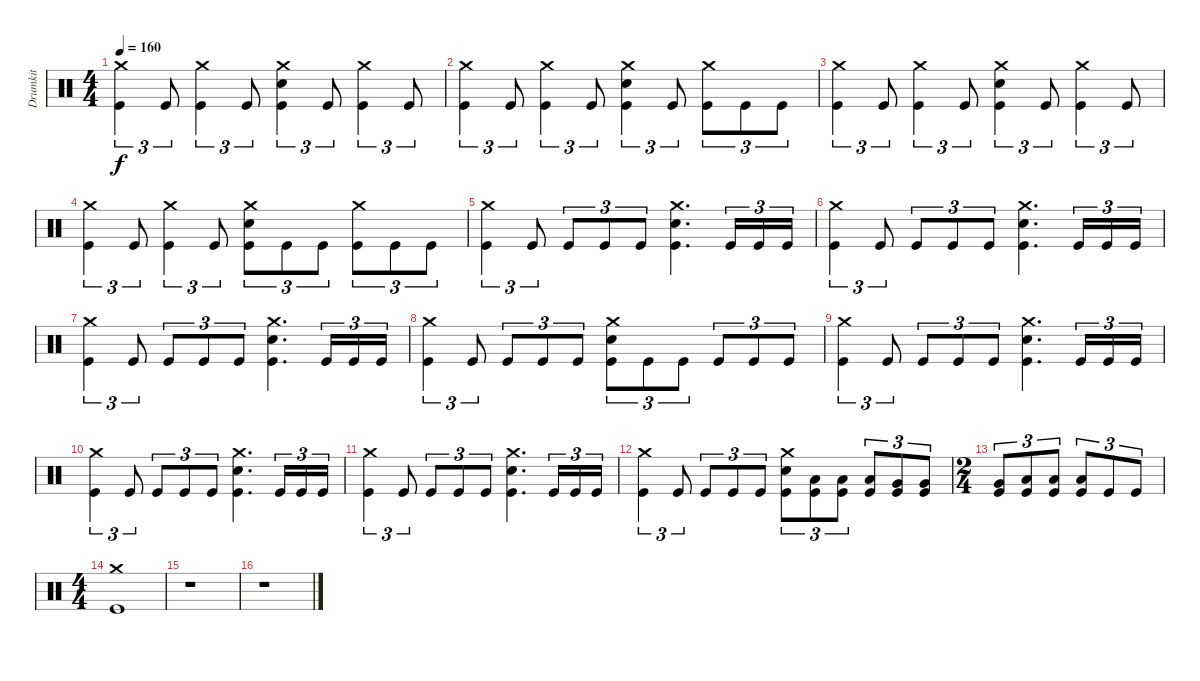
\track ("Drumkit" "Drumkit") {instrument percussion}
\staff {score}
\articulation defaults
\ts (4 4)
\tempo 160
\clef neutral
\ks c
("Crash medium (hit)" "Kick (hit)").4{tu (3 2) dy f} "Kick (hit)".8{tu (3 2)} ("Crash medium (hit)" "Kick (hit)").4{tu (3 2)} "Kick (hit)".8{tu (3 2)} ("Crash medium (hit)" "Snare (hit) 2" "Kick (hit)").4{tu (3 2)} "Kick (hit)".8{tu (3 2)} ("Crash medium (hit)" "Kick (hit)").4{tu (3 2)} "Kick (hit)".8{tu (3 2)} |
("Crash medium (hit)" "Kick (hit)").4{tu (3 2)} "Kick (hit)".8{tu (3 2)} ("Crash medium (hit)" "Kick (hit)").4{tu (3 2)} "Kick (hit)".8{tu (3 2)} ("Crash medium (hit)" "Snare (hit) 2" "Kick (hit)").4{tu (3 2)} "Kick (hit)".8{tu (3 2)} ("Crash medium (hit)" "Kick (hit)").8{tu (3 2)} "Kick (hit)".8{tu (3 2)} "Kick (hit)".8{tu (3 2)} |
("Crash medium (hit)" "Kick (hit)").4{tu (3 2)} "Kick (hit)".8{tu (3 2)} ("Crash medium (hit)" "Kick (hit)").4{tu (3 2)} "Kick (hit)".8{tu (3 2)} ("Crash medium (hit)" "Snare (hit) 2" "Kick (hit)").4{tu (3 2)} "Kick (hit)".8{tu (3 2)} ("Crash medium (hit)" "Kick (hit)").4{tu (3 2)} "Kick (hit)".8{tu (3 2)} |
("Crash medium (hit)" "Kick (hit)").4{tu (3 2)} "Kick (hit)".8{tu (3 2)} ("Crash medium (hit)" "Kick (hit)").4{tu (3 2)} "Kick (hit)".8{tu (3 2)} ("Crash medium (hit)" "Snare (hit) 2" "Kick (hit)").8{tu (3 2)} "Kick (hit)".8{tu (3 2)} "Kick (hit)".8{tu (3 2)} ("Crash medium (hit)" "Kick (hit)").8{tu (3 2)} "Kick (hit)".8{tu (3 2)} "Kick (hit)".8{tu (3 2)} |
("Crash medium (hit)" "Kick (hit)").4{tu (3 2)} "Kick (hit)".8{tu (3 2)} "Kick (hit)".8{tu (3 2)} "Kick (hit)".8{tu (3 2)} "Kick (hit)".8{tu (3 2)} ("Crash medium (hit)" "Snare (hit) 2" "Kick (hit)").4{d} "Kick (hit)".16{tu (3 2)} "Kick (hit)".16{tu (3 2)} "Kick (hit)".16{tu (3 2)} |
("Crash medium (hit)" "Kick (hit)").4{tu (3 2)} "Kick (hit)".8{tu (3 2)} "Kick (hit)".8{tu (3 2)} "Kick (hit)".8{tu (3 2)} "Kick (hit)".8{tu (3 2)} ("Crash medium (hit)" "Snare (hit) 2" "Kick (hit)").4{d} "Kick (hit)".16{tu (3 2)} "Kick (hit)".16{tu (3 2)} "Kick (hit)".16{tu (3 2)} |
("Crash medium (hit)" "Kick (hit)").4{tu (3 2)} "Kick (hit)".8{tu (3 2)} "Kick (hit)".8{tu (3 2)} "Kick (hit)".8{tu (3 2)} "Kick (hit)".8{tu (3 2)} ("Crash medium (hit)" "Snare (hit) 2" "Kick (hit)").4{d} "Kick (hit)".16{tu (3 2)} "Kick (hit)".16{tu (3 2)} "Kick (hit)".16{tu (3 2)} |
("Crash medium (hit)" "Kick (hit)").4{tu (3 2)} "Kick (hit)".8{tu (3 2)} "Kick (hit)".8{tu (3 2)} "Kick (hit)".8{tu (3 2)} "Kick (hit)".8{tu (3 2)} ("Crash medium (hit)" "Snare (hit) 2" "Kick (hit)").8{tu (3 2)} "Kick (hit)".8{tu (3 2)} "Kick (hit)".8{tu (3 2)} "Kick (hit)".8{tu (3 2)} "Kick (hit)".8{tu (3 2)} "Kick (hit)".8{tu (3 2)} |
("Crash medium (hit)" "Kick (hit)").4{tu (3 2)} "Kick (hit)".8{tu (3 2)} "Kick (hit)".8{tu (3 2)} "Kick (hit)".8{tu (3 2)} "Kick (hit)".8{tu (3 2)} ("Crash medium (hit)" "Snare (hit) 2" "Kick (hit)").4{d} "Kick (hit)".16{tu (3 2)} "Kick (hit)".16{tu (3 2)} "Kick (hit)".16{tu (3 2)} |
("Crash medium (hit)" "Kick (hit)").4{tu (3 2)} "Kick (hit)".8{tu (3 2)} "Kick (hit)".8{tu (3 2)} "Kick (hit)".8{tu (3 2)} "Kick (hit)".8{tu (3 2)} ("Crash medium (hit)" "Snare (hit) 2" "Kick (hit)").4{d} "Kick (hit)".16{tu (3 2)} "Kick (hit)".16{tu (3 2)} "Kick (hit)".16{tu (3 2)} |
("Crash medium (hit)" "Kick (hit)").4{tu (3 2)} "Kick (hit)".8{tu (3 2)} "Kick (hit)".8{tu (3 2)} "Kick (hit)".8{tu (3 2)} "Kick (hit)".8{tu (3 2)} ("Crash medium (hit)" "Snare (hit) 2" "Kick (hit)").4{d} "Kick (hit)".16{tu (3 2)} "Kick (hit)".16{tu (3 2)} "Kick (hit)".16{tu (3 2)} |
("Crash medium (hit)" "Kick (hit)").4{tu (3 2)} "Kick (hit)".8{tu (3 2)} "Kick (hit)".8{tu (3 2)} "Kick (hit)".8{tu (3 2)} "Kick (hit)".8{tu (3 2)} ("Crash medium (hit)" "Snare (hit) 2" "Kick (hit)").8{tu (3 2)} ("Low Tom (hit)" "Kick (hit)").8{tu (3 2)} ("Low Tom (hit)" "Kick (hit)").8{tu (3 2)} ("Low Tom (hit)" "Kick (hit)").8{tu (3 2)} ("Very Low Tom (hit)" "Kick (hit)").8{tu (3 2)} ("Very Low Tom (hit)" "Kick (hit)").8{tu (3 2)} |
\ts (2 4)
("Very Low Tom (hit)" "Kick (hit)").8{tu (3 2)} ("Low Floor Tom (hit)" "Kick (hit)").8{tu (3 2)} ("Low Floor Tom (hit)" "Kick (hit)").8{tu (3 2)} ("Low Floor Tom (hit)" "Kick (hit)").8{tu (3 2)} "Kick (hit)".8{tu (3 2)} "Kick (hit)".8{tu (3 2)} |
\ts (4 4)
("Crash medium (hit)" "Kick (hit)").1 |
r.1 |
r.1
